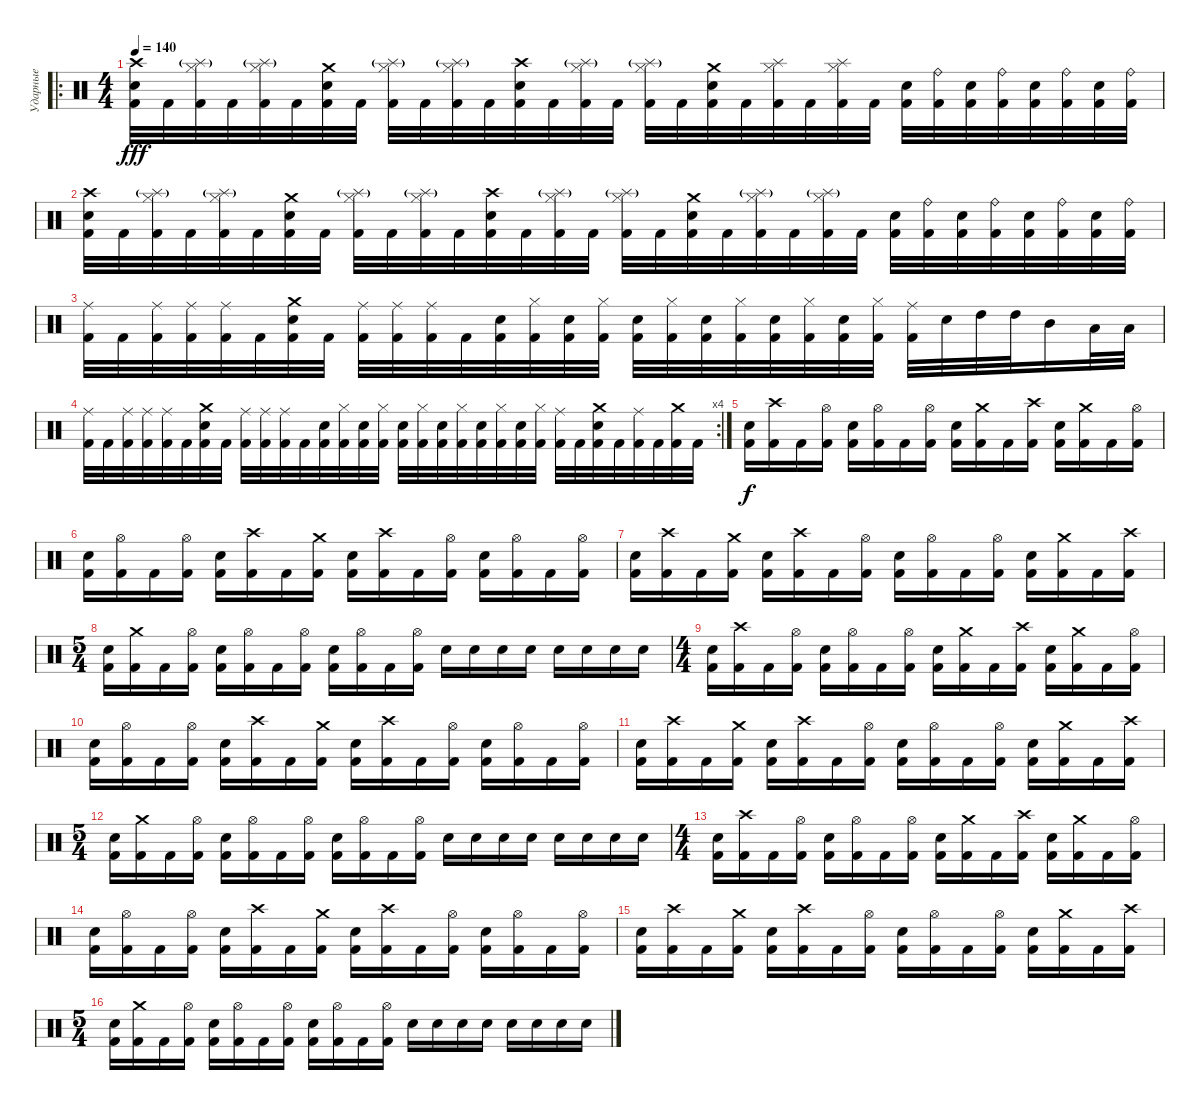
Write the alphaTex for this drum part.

\track ("Ударные" "Ударные") {instrument percussion}
\staff {score}
\articulation defaults
\ro
\ts (4 4)
\tempo 140
\clef neutral
\ks c
("Crash high (hit)" "Electric Snare (hit)" "Kick (hit) 2").32{dy fff} "Kick (hit) 2".32 ("Splash (hit)"{g} "Hi-Hat (closed)" "Kick (hit) 2").32 "Kick (hit) 2".32 ("Splash (hit)"{g} "Hi-Hat (closed)" "Kick (hit) 2").32 "Kick (hit) 2".32 ("Crash medium (hit)" "Electric Snare (hit)" "Kick (hit) 2").32 "Kick (hit) 2".32 ("Splash (hit)"{g} "Hi-Hat (closed)" "Kick (hit) 2").32 "Kick (hit) 2".32 ("Splash (hit)"{g} "Hi-Hat (closed)" "Kick (hit) 2").32 "Kick (hit) 2".32 ("Crash high (hit)" "Electric Snare (hit)" "Kick (hit) 2").32 "Kick (hit) 2".32 ("Splash (hit)"{g} "Hi-Hat (closed)" "Kick (hit) 2").32 "Kick (hit) 2".32 ("Splash (hit)"{g} "Hi-Hat (closed)" "Kick (hit) 2").32 "Kick (hit) 2".32 ("Crash medium (hit)" "Electric Snare (hit)" "Kick (hit) 2").32 "Kick (hit) 2".32 ("Splash (hit)" "Hi-Hat (closed)" "Kick (hit) 2").32 "Kick (hit) 2".32 ("Splash (hit)" "Hi-Hat (closed)" "Kick (hit) 2").32 "Kick (hit) 2".32 ("Electric Snare (hit)" "Kick (hit) 2").32 ("Ride (bell)" "Kick (hit) 2").32 ("Electric Snare (hit)" "Kick (hit) 2").32 ("Ride (bell)" "Kick (hit) 2").32 ("Electric Snare (hit)" "Kick (hit) 2").32 ("Ride (bell)" "Kick (hit) 2").32 ("Electric Snare (hit)" "Kick (hit) 2").32 ("Ride (bell)" "Kick (hit) 2").32 |
("Crash high (hit)" "Electric Snare (hit)" "Kick (hit) 2").32 "Kick (hit) 2".32 ("Splash (hit)"{g} "Hi-Hat (closed)" "Kick (hit) 2").32 "Kick (hit) 2".32 ("Splash (hit)"{g} "Hi-Hat (closed)" "Kick (hit) 2").32 "Kick (hit) 2".32 ("Crash medium (hit)" "Electric Snare (hit)" "Kick (hit) 2").32 "Kick (hit) 2".32 ("Splash (hit)"{g} "Hi-Hat (closed)" "Kick (hit) 2").32 "Kick (hit) 2".32 ("Splash (hit)"{g} "Hi-Hat (closed)" "Kick (hit) 2").32 "Kick (hit) 2".32 ("Crash high (hit)" "Electric Snare (hit)" "Kick (hit) 2").32 "Kick (hit) 2".32 ("Splash (hit)"{g} "Hi-Hat (closed)" "Kick (hit) 2").32 "Kick (hit) 2".32 ("Splash (hit)"{g} "Hi-Hat (closed)" "Kick (hit) 2").32 "Kick (hit) 2".32 ("Crash medium (hit)" "Electric Snare (hit)" "Kick (hit) 2").32 "Kick (hit) 2".32 ("Splash (hit)"{g} "Hi-Hat (closed)" "Kick (hit) 2").32 "Kick (hit) 2".32 ("Splash (hit)"{g} "Hi-Hat (closed)" "Kick (hit) 2").32 "Kick (hit) 2".32 ("Electric Snare (hit)" "Kick (hit) 2").32 ("Ride (bell)" "Kick (hit) 2").32 ("Electric Snare (hit)" "Kick (hit) 2").32 ("Ride (bell)" "Kick (hit) 2").32 ("Electric Snare (hit)" "Kick (hit) 2").32 ("Ride (bell)" "Kick (hit) 2").32 ("Electric Snare (hit)" "Kick (hit) 2").32 ("Ride (bell)" "Kick (hit) 2").32 |
("Ride (middle)" "Kick (hit) 2").32 "Kick (hit) 2".32 ("Ride (middle)" "Kick (hit) 2").32 ("Ride (middle)" "Kick (hit) 2").32 ("Ride (middle)" "Kick (hit) 2").32 "Kick (hit) 2".32 ("Crash medium (hit)" "Electric Snare (hit)" "Kick (hit) 2").32 "Kick (hit) 2".32 ("Ride (middle)" "Kick (hit) 2").32 ("Ride (middle)" "Kick (hit) 2").32 ("Ride (middle)" "Kick (hit) 2").32 "Kick (hit) 2".32 ("Electric Snare (hit)" "Kick (hit) 2").32 ("Hi-Hat (closed)" "Kick (hit) 2").32 ("Electric Snare (hit)" "Kick (hit) 2").32 ("Hi-Hat (closed)" "Kick (hit) 2").32 ("Electric Snare (hit)" "Kick (hit) 2").32 ("Hi-Hat (closed)" "Kick (hit) 2").32 ("Electric Snare (hit)" "Kick (hit) 2").32 ("Hi-Hat (closed)" "Kick (hit) 2").32 ("Electric Snare (hit)" "Kick (hit) 2").32 ("Hi-Hat (closed)" "Kick (hit) 2").32 ("Electric Snare (hit)" "Kick (hit) 2").32 ("Hi-Hat (closed)" "Kick (hit) 2").32 ("Ride (middle)" "Kick (hit) 2").32 "Electric Snare (hit)".32 "High Tom (hit)".32 "High Tom (hit)".32 "Mid Tom (hit)".16 "Low Tom (hit)".32 "Low Tom (hit)".32 |
\rc 4
("Ride (middle)" "Kick (hit) 2").32 "Kick (hit) 2".32 ("Ride (middle)" "Kick (hit) 2").32 ("Ride (middle)" "Kick (hit) 2").32 ("Ride (middle)" "Kick (hit) 2").32 "Kick (hit) 2".32 ("Crash medium (hit)" "Electric Snare (hit)" "Kick (hit) 2").32 "Kick (hit) 2".32 ("Ride (middle)" "Kick (hit) 2").32 ("Ride (middle)" "Kick (hit) 2").32 ("Ride (middle)" "Kick (hit) 2").32 "Kick (hit) 2".32 ("Electric Snare (hit)" "Kick (hit) 2").32 ("Hi-Hat (closed)" "Kick (hit) 2").32 ("Electric Snare (hit)" "Kick (hit) 2").32 ("Hi-Hat (closed)" "Kick (hit) 2").32 ("Electric Snare (hit)" "Kick (hit) 2").32 ("Hi-Hat (closed)" "Kick (hit) 2").32 ("Electric Snare (hit)" "Kick (hit) 2").32 ("Hi-Hat (closed)" "Kick (hit) 2").32 ("Electric Snare (hit)" "Kick (hit) 2").32 ("Hi-Hat (closed)" "Kick (hit) 2").32 ("Electric Snare (hit)" "Kick (hit) 2").32 ("Hi-Hat (closed)" "Kick (hit) 2").32 ("Ride (middle)" "Kick (hit) 2").32 "Kick (hit) 2".32 ("Crash medium (hit)" "Electric Snare (hit)" "Kick (hit) 2").32 "Kick (hit) 2".32 ("Ride (middle)" "Kick (hit) 2").32 "Kick (hit) 2".32 ("Crash medium (hit)" "Kick (hit) 2").32 "Kick (hit) 2".32 |
("Electric Snare (hit)" "Kick (hit) 2").16{dy f} ("Crash high (hit)" "Kick (hit) 2").16 "Kick (hit) 2".16 ("Hi-Hat (open)" "Kick (hit) 2").16 ("Electric Snare (hit)" "Kick (hit) 2").16 ("Hi-Hat (open)" "Kick (hit) 2").16 "Kick (hit) 2".16 ("Hi-Hat (open)" "Kick (hit) 2").16 ("Electric Snare (hit)" "Kick (hit) 2").16 ("Crash medium (hit)" "Kick (hit) 2").16 "Kick (hit) 2".16 ("Crash high (hit)" "Kick (hit) 2").16 ("Electric Snare (hit)" "Kick (hit) 2").16 ("Crash medium (hit)" "Kick (hit) 2").16 "Kick (hit) 2".16 ("Hi-Hat (open)" "Kick (hit) 2").16 |
("Electric Snare (hit)" "Kick (hit) 2").16 ("Hi-Hat (open)" "Kick (hit) 2").16 "Kick (hit) 2".16 ("Hi-Hat (open)" "Kick (hit) 2").16 ("Electric Snare (hit)" "Kick (hit) 2").16 ("Crash high (hit)" "Kick (hit) 2").16 "Kick (hit) 2".16 ("Crash medium (hit)" "Kick (hit) 2").16 ("Electric Snare (hit)" "Kick (hit) 2").16 ("Crash high (hit)" "Kick (hit) 2").16 "Kick (hit) 2".16 ("Hi-Hat (open)" "Kick (hit) 2").16 ("Electric Snare (hit)" "Kick (hit) 2").16 ("Hi-Hat (open)" "Kick (hit) 2").16 "Kick (hit) 2".16 ("Hi-Hat (open)" "Kick (hit) 2").16 |
("Electric Snare (hit)" "Kick (hit) 2").16 ("Crash high (hit)" "Kick (hit) 2").16 "Kick (hit) 2".16 ("Crash medium (hit)" "Kick (hit) 2").16 ("Electric Snare (hit)" "Kick (hit) 2").16 ("Crash high (hit)" "Kick (hit) 2").16 "Kick (hit) 2".16 ("Hi-Hat (open)" "Kick (hit) 2").16 ("Electric Snare (hit)" "Kick (hit) 2").16 ("Hi-Hat (open)" "Kick (hit) 2").16 "Kick (hit) 2".16 ("Hi-Hat (open)" "Kick (hit) 2").16 ("Electric Snare (hit)" "Kick (hit) 2").16 ("Crash medium (hit)" "Kick (hit) 2").16 "Kick (hit) 2".16 ("Crash high (hit)" "Kick (hit) 2").16 |
\ts (5 4)
("Electric Snare (hit)" "Kick (hit) 2").16 ("Crash medium (hit)" "Kick (hit) 2").16 "Kick (hit) 2".16 ("Hi-Hat (open)" "Kick (hit) 2").16 ("Electric Snare (hit)" "Kick (hit) 2").16 ("Hi-Hat (open)" "Kick (hit) 2").16 "Kick (hit) 2".16 ("Hi-Hat (open)" "Kick (hit) 2").16 ("Electric Snare (hit)" "Kick (hit) 2").16 ("Hi-Hat (open)" "Kick (hit) 2").16 "Kick (hit) 2".16 ("Hi-Hat (open)" "Kick (hit) 2").16 "Electric Snare (hit)".16 "Electric Snare (hit)".16 "Electric Snare (hit)".16 "Electric Snare (hit)".16 "Electric Snare (hit)".16 "Electric Snare (hit)".16 "Electric Snare (hit)".16 "Electric Snare (hit)".16 |
\ts (4 4)
("Electric Snare (hit)" "Kick (hit) 2").16 ("Crash high (hit)" "Kick (hit) 2").16 "Kick (hit) 2".16 ("Hi-Hat (open)" "Kick (hit) 2").16 ("Electric Snare (hit)" "Kick (hit) 2").16 ("Hi-Hat (open)" "Kick (hit) 2").16 "Kick (hit) 2".16 ("Hi-Hat (open)" "Kick (hit) 2").16 ("Electric Snare (hit)" "Kick (hit) 2").16 ("Crash medium (hit)" "Kick (hit) 2").16 "Kick (hit) 2".16 ("Crash high (hit)" "Kick (hit) 2").16 ("Electric Snare (hit)" "Kick (hit) 2").16 ("Crash medium (hit)" "Kick (hit) 2").16 "Kick (hit) 2".16 ("Hi-Hat (open)" "Kick (hit) 2").16 |
("Electric Snare (hit)" "Kick (hit) 2").16 ("Hi-Hat (open)" "Kick (hit) 2").16 "Kick (hit) 2".16 ("Hi-Hat (open)" "Kick (hit) 2").16 ("Electric Snare (hit)" "Kick (hit) 2").16 ("Crash high (hit)" "Kick (hit) 2").16 "Kick (hit) 2".16 ("Crash medium (hit)" "Kick (hit) 2").16 ("Electric Snare (hit)" "Kick (hit) 2").16 ("Crash high (hit)" "Kick (hit) 2").16 "Kick (hit) 2".16 ("Hi-Hat (open)" "Kick (hit) 2").16 ("Electric Snare (hit)" "Kick (hit) 2").16 ("Hi-Hat (open)" "Kick (hit) 2").16 "Kick (hit) 2".16 ("Hi-Hat (open)" "Kick (hit) 2").16 |
("Electric Snare (hit)" "Kick (hit) 2").16 ("Crash high (hit)" "Kick (hit) 2").16 "Kick (hit) 2".16 ("Crash medium (hit)" "Kick (hit) 2").16 ("Electric Snare (hit)" "Kick (hit) 2").16 ("Crash high (hit)" "Kick (hit) 2").16 "Kick (hit) 2".16 ("Hi-Hat (open)" "Kick (hit) 2").16 ("Electric Snare (hit)" "Kick (hit) 2").16 ("Hi-Hat (open)" "Kick (hit) 2").16 "Kick (hit) 2".16 ("Hi-Hat (open)" "Kick (hit) 2").16 ("Electric Snare (hit)" "Kick (hit) 2").16 ("Crash medium (hit)" "Kick (hit) 2").16 "Kick (hit) 2".16 ("Crash high (hit)" "Kick (hit) 2").16 |
\ts (5 4)
("Electric Snare (hit)" "Kick (hit) 2").16 ("Crash medium (hit)" "Kick (hit) 2").16 "Kick (hit) 2".16 ("Hi-Hat (open)" "Kick (hit) 2").16 ("Electric Snare (hit)" "Kick (hit) 2").16 ("Hi-Hat (open)" "Kick (hit) 2").16 "Kick (hit) 2".16 ("Hi-Hat (open)" "Kick (hit) 2").16 ("Electric Snare (hit)" "Kick (hit) 2").16 ("Hi-Hat (open)" "Kick (hit) 2").16 "Kick (hit) 2".16 ("Hi-Hat (open)" "Kick (hit) 2").16 "Electric Snare (hit)".16 "Electric Snare (hit)".16 "Electric Snare (hit)".16 "Electric Snare (hit)".16 "Electric Snare (hit)".16 "Electric Snare (hit)".16 "Electric Snare (hit)".16 "Electric Snare (hit)".16 |
\ts (4 4)
("Electric Snare (hit)" "Kick (hit) 2").16 ("Crash high (hit)" "Kick (hit) 2").16 "Kick (hit) 2".16 ("Hi-Hat (open)" "Kick (hit) 2").16 ("Electric Snare (hit)" "Kick (hit) 2").16 ("Hi-Hat (open)" "Kick (hit) 2").16 "Kick (hit) 2".16 ("Hi-Hat (open)" "Kick (hit) 2").16 ("Electric Snare (hit)" "Kick (hit) 2").16 ("Crash medium (hit)" "Kick (hit) 2").16 "Kick (hit) 2".16 ("Crash high (hit)" "Kick (hit) 2").16 ("Electric Snare (hit)" "Kick (hit) 2").16 ("Crash medium (hit)" "Kick (hit) 2").16 "Kick (hit) 2".16 ("Hi-Hat (open)" "Kick (hit) 2").16 |
("Electric Snare (hit)" "Kick (hit) 2").16 ("Hi-Hat (open)" "Kick (hit) 2").16 "Kick (hit) 2".16 ("Hi-Hat (open)" "Kick (hit) 2").16 ("Electric Snare (hit)" "Kick (hit) 2").16 ("Crash high (hit)" "Kick (hit) 2").16 "Kick (hit) 2".16 ("Crash medium (hit)" "Kick (hit) 2").16 ("Electric Snare (hit)" "Kick (hit) 2").16 ("Crash high (hit)" "Kick (hit) 2").16 "Kick (hit) 2".16 ("Hi-Hat (open)" "Kick (hit) 2").16 ("Electric Snare (hit)" "Kick (hit) 2").16 ("Hi-Hat (open)" "Kick (hit) 2").16 "Kick (hit) 2".16 ("Hi-Hat (open)" "Kick (hit) 2").16 |
("Electric Snare (hit)" "Kick (hit) 2").16 ("Crash high (hit)" "Kick (hit) 2").16 "Kick (hit) 2".16 ("Crash medium (hit)" "Kick (hit) 2").16 ("Electric Snare (hit)" "Kick (hit) 2").16 ("Crash high (hit)" "Kick (hit) 2").16 "Kick (hit) 2".16 ("Hi-Hat (open)" "Kick (hit) 2").16 ("Electric Snare (hit)" "Kick (hit) 2").16 ("Hi-Hat (open)" "Kick (hit) 2").16 "Kick (hit) 2".16 ("Hi-Hat (open)" "Kick (hit) 2").16 ("Electric Snare (hit)" "Kick (hit) 2").16 ("Crash medium (hit)" "Kick (hit) 2").16 "Kick (hit) 2".16 ("Crash high (hit)" "Kick (hit) 2").16 |
\ts (5 4)
("Electric Snare (hit)" "Kick (hit) 2").16 ("Crash medium (hit)" "Kick (hit) 2").16 "Kick (hit) 2".16 ("Hi-Hat (open)" "Kick (hit) 2").16 ("Electric Snare (hit)" "Kick (hit) 2").16 ("Hi-Hat (open)" "Kick (hit) 2").16 "Kick (hit) 2".16 ("Hi-Hat (open)" "Kick (hit) 2").16 ("Electric Snare (hit)" "Kick (hit) 2").16 ("Hi-Hat (open)" "Kick (hit) 2").16 "Kick (hit) 2".16 ("Hi-Hat (open)" "Kick (hit) 2").16 "Electric Snare (hit)".16 "Electric Snare (hit)".16 "Electric Snare (hit)".16 "Electric Snare (hit)".16 "Electric Snare (hit)".16 "Electric Snare (hit)".16 "Electric Snare (hit)".16 "Electric Snare (hit)".16
